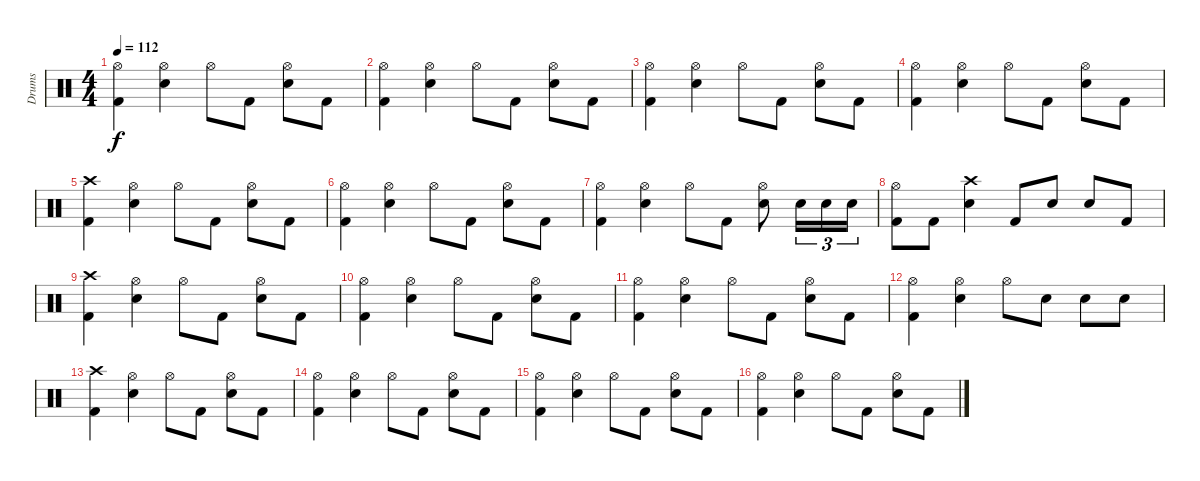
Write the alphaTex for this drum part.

\track ("Drums" "Drums") {instrument percussion}
\staff {score}
\articulation defaults
\ts (4 4)
\tempo 112
\clef neutral
\ks c
("Hi-Hat (open)" "Kick (hit) 2").4{dy f} ("Hi-Hat (open)" "Snare (hit) 2").4 "Hi-Hat (open)".8 "Kick (hit) 2".8 ("Hi-Hat (open)" "Snare (hit) 2").8 "Kick (hit) 2".8 |
("Hi-Hat (open)" "Kick (hit) 2").4 ("Hi-Hat (open)" "Snare (hit) 2").4 "Hi-Hat (open)".8 "Kick (hit) 2".8 ("Hi-Hat (open)" "Snare (hit) 2").8 "Kick (hit) 2".8 |
("Hi-Hat (open)" "Kick (hit) 2").4 ("Hi-Hat (open)" "Snare (hit) 2").4 "Hi-Hat (open)".8 "Kick (hit) 2".8 ("Hi-Hat (open)" "Snare (hit) 2").8 "Kick (hit) 2".8 |
("Hi-Hat (open)" "Kick (hit) 2").4 ("Hi-Hat (open)" "Snare (hit) 2").4 "Hi-Hat (open)".8 "Kick (hit) 2".8 ("Hi-Hat (open)" "Snare (hit) 2").8 "Kick (hit) 2".8 |
("Crash high (hit)" "Kick (hit) 2").4 ("Hi-Hat (open)" "Snare (hit) 2").4 "Hi-Hat (open)".8 "Kick (hit) 2".8 ("Hi-Hat (open)" "Snare (hit) 2").8 "Kick (hit) 2".8 |
("Hi-Hat (open)" "Kick (hit) 2").4 ("Hi-Hat (open)" "Snare (hit) 2").4 "Hi-Hat (open)".8 "Kick (hit) 2".8 ("Hi-Hat (open)" "Snare (hit) 2").8 "Kick (hit) 2".8 |
("Hi-Hat (open)" "Kick (hit) 2").4 ("Hi-Hat (open)" "Snare (hit) 2").4 "Hi-Hat (open)".8 "Kick (hit) 2".8 ("Hi-Hat (open)" "Snare (hit) 2").8 "Snare (hit) 2".16{tu (3 2)} "Snare (hit) 2".16{tu (3 2)} "Snare (hit) 2".16{tu (3 2)} |
("Hi-Hat (open)" "Kick (hit) 2").8 "Kick (hit) 2".8 ("Crash high (hit)" "Snare (hit) 2").4 "Kick (hit) 2".8 "Snare (hit) 2".8 "Snare (hit) 2".8 "Kick (hit) 2".8 |
("Crash high (hit)" "Kick (hit) 2").4 ("Hi-Hat (open)" "Snare (hit) 2").4 "Hi-Hat (open)".8 "Kick (hit) 2".8 ("Hi-Hat (open)" "Snare (hit) 2").8 "Kick (hit) 2".8 |
("Hi-Hat (open)" "Kick (hit) 2").4 ("Hi-Hat (open)" "Snare (hit) 2").4 "Hi-Hat (open)".8 "Kick (hit) 2".8 ("Hi-Hat (open)" "Snare (hit) 2").8 "Kick (hit) 2".8 |
("Hi-Hat (open)" "Kick (hit) 2").4 ("Hi-Hat (open)" "Snare (hit) 2").4 "Hi-Hat (open)".8 "Kick (hit) 2".8 ("Hi-Hat (open)" "Snare (hit) 2").8 "Kick (hit) 2".8 |
("Hi-Hat (open)" "Kick (hit) 2").4 ("Hi-Hat (open)" "Snare (hit) 2").4 "Hi-Hat (open)".8 "Snare (hit) 2".8 "Snare (hit) 2".8 "Snare (hit) 2".8 |
("Crash high (hit)" "Kick (hit) 2").4 ("Hi-Hat (open)" "Snare (hit) 2").4 "Hi-Hat (open)".8 "Kick (hit) 2".8 ("Hi-Hat (open)" "Snare (hit) 2").8 "Kick (hit) 2".8 |
("Hi-Hat (open)" "Kick (hit) 2").4 ("Hi-Hat (open)" "Snare (hit) 2").4 "Hi-Hat (open)".8 "Kick (hit) 2".8 ("Hi-Hat (open)" "Snare (hit) 2").8 "Kick (hit) 2".8 |
("Hi-Hat (open)" "Kick (hit) 2").4 ("Hi-Hat (open)" "Snare (hit) 2").4 "Hi-Hat (open)".8 "Kick (hit) 2".8 ("Hi-Hat (open)" "Snare (hit) 2").8 "Kick (hit) 2".8 |
("Hi-Hat (open)" "Kick (hit) 2").4 ("Hi-Hat (open)" "Snare (hit) 2").4 "Hi-Hat (open)".8 "Kick (hit) 2".8 ("Hi-Hat (open)" "Snare (hit) 2").8 "Kick (hit) 2".8
